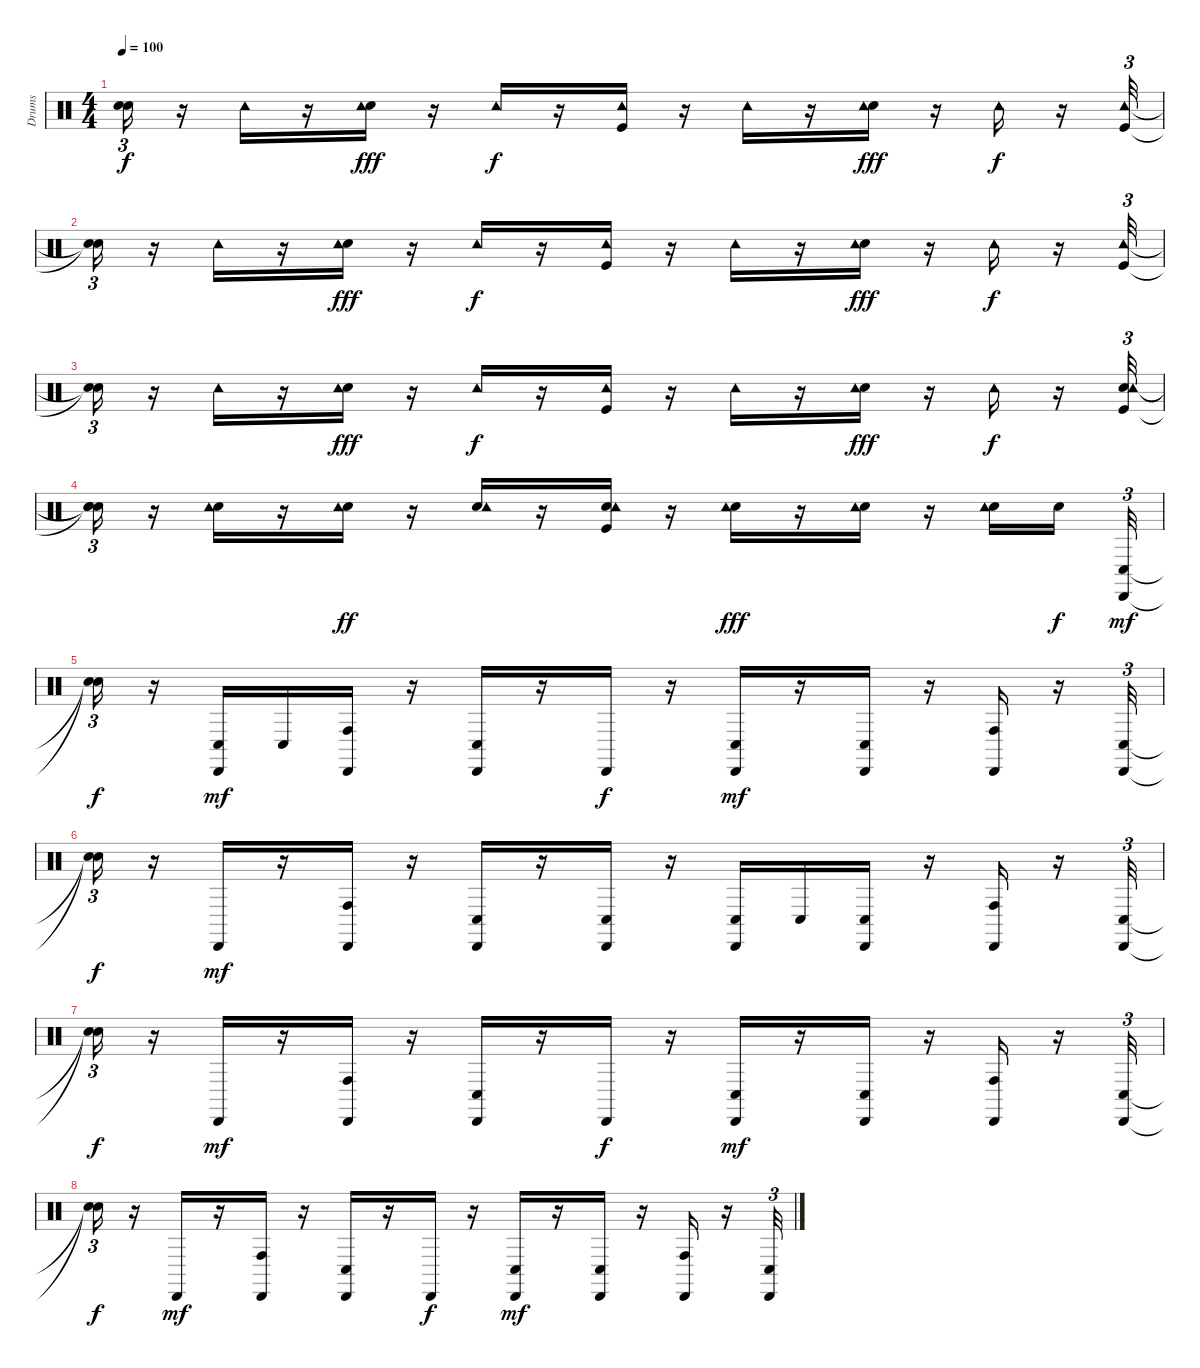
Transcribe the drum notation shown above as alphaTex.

\track ("Drums" "Drums") {instrument percussion}
\staff {score}
\articulation defaults
\ts (4 4)
\tempo 100
\clef neutral
\ks c
("Snare (hit)"{t} "Snare (hit)"{t}).16{tu (3 2) dy f} r.16 "Tambourine (hit)".16 r.16 ("Snare (hit) 2" "Tambourine (hit)").16{dy fff} r.16 "Tambourine (hit)".16{dy f} r.16 ("Kick (hit)" "Tambourine (hit)").16 r.16 "Tambourine (hit)".16 r.16 ("Snare (hit) 2" "Tambourine (hit)").16{dy fff} r.16 "Tambourine (hit)".16{dy f} r.16 ("Kick (hit)" "Tambourine (hit)").32{tu (3 2)} |
("Snare (hit)"{t} "Snare (hit)"{t}).16{tu (3 2)} r.16 "Tambourine (hit)".16 r.16 ("Snare (hit) 2" "Tambourine (hit)").16{dy fff} r.16 "Tambourine (hit)".16{dy f} r.16 ("Kick (hit)" "Tambourine (hit)").16 r.16 "Tambourine (hit)".16 r.16 ("Snare (hit) 2" "Tambourine (hit)").16{dy fff} r.16 "Tambourine (hit)".16{dy f} r.16 ("Kick (hit)" "Tambourine (hit)").32{tu (3 2)} |
("Snare (hit)"{t} "Snare (hit)"{t}).16{tu (3 2)} r.16 "Tambourine (hit)".16 r.16 ("Snare (hit) 2" "Tambourine (hit)").16{dy fff} r.16 "Tambourine (hit)".16{dy f} r.16 ("Kick (hit)" "Tambourine (hit)").16 r.16 "Tambourine (hit)".16 r.16 ("Snare (hit) 2" "Tambourine (hit)").16{dy fff} r.16 "Tambourine (hit)".16{dy f} r.16 ("Kick (hit)" "Snare (hit) 2" "Tambourine (hit)").32{tu (3 2)} |
("Snare (hit)"{t} "Snare (hit)"{t} "Snare (hit)"{t}).16{tu (3 2)} r.16 ("Snare (hit) 2" "Tambourine (hit)").16 r.16 ("Snare (hit) 2" "Tambourine (hit)").16{dy ff} r.16 ("Snare (hit) 2" "Tambourine (hit)").16 r.16 ("Kick (hit)" "Snare (hit) 2" "Tambourine (hit)").16 r.16 ("Snare (hit) 2" "Tambourine (hit)").16{dy fff} r.16 ("Snare (hit) 2" "Tambourine (hit)").16 r.16 ("Snare (hit) 2" "Tambourine (hit)").16 "Snare (hit) 2".16{dy f} ("Conga low (hit)" "Cabasa (hit)").32{tu (3 2) dy mf} |
("Snare (hit)"{t} "Snare (hit)"{t}).16{tu (3 2) dy f} r.16 ("Conga low (hit)" "Cabasa (hit)").16{dy mf} "Conga low (hit)".16 ("Conga high (hit)" "Cabasa (hit)").16 r.16 ("Conga low (hit)" "Cabasa (hit)").16 r.16 "Cabasa (hit)".16{dy f} r.16 ("Conga low (hit)" "Cabasa (hit)").16{dy mf} r.16 ("Conga low (hit)" "Cabasa (hit)").16 r.16 ("Conga high (hit)" "Cabasa (hit)").16 r.16 ("Conga low (hit)" "Cabasa (hit)").32{tu (3 2)} |
("Snare (hit)"{t} "Snare (hit)"{t}).16{tu (3 2) dy f} r.16 "Cabasa (hit)".16{dy mf} r.16 ("Conga high (hit)" "Cabasa (hit)").16 r.16 ("Conga low (hit)" "Cabasa (hit)").16 r.16 ("Conga low (hit)" "Cabasa (hit)").16 r.16 ("Conga low (hit)" "Cabasa (hit)").16 "Conga low (hit)".16 ("Conga low (hit)" "Cabasa (hit)").16 r.16 ("Conga high (hit)" "Cabasa (hit)").16 r.16 ("Conga low (hit)" "Cabasa (hit)").32{tu (3 2)} |
("Snare (hit)"{t} "Snare (hit)"{t}).16{tu (3 2) dy f} r.16 "Cabasa (hit)".16{dy mf} r.16 ("Conga high (hit)" "Cabasa (hit)").16 r.16 ("Conga low (hit)" "Cabasa (hit)").16 r.16 "Cabasa (hit)".16{dy f} r.16 ("Conga low (hit)" "Cabasa (hit)").16{dy mf} r.16 ("Conga low (hit)" "Cabasa (hit)").16 r.16 ("Conga high (hit)" "Cabasa (hit)").16 r.16 ("Conga low (hit)" "Cabasa (hit)").32{tu (3 2)} |
("Snare (hit)"{t} "Snare (hit)"{t}).16{tu (3 2) dy f} r.16 "Cabasa (hit)".16{dy mf} r.16 ("Conga high (hit)" "Cabasa (hit)").16 r.16 ("Conga low (hit)" "Cabasa (hit)").16 r.16 "Cabasa (hit)".16{dy f} r.16 ("Conga low (hit)" "Cabasa (hit)").16{dy mf} r.16 ("Conga low (hit)" "Cabasa (hit)").16 r.16 ("Conga high (hit)" "Cabasa (hit)").16 r.16 ("Conga low (hit)" "Cabasa (hit)").32{tu (3 2)}
